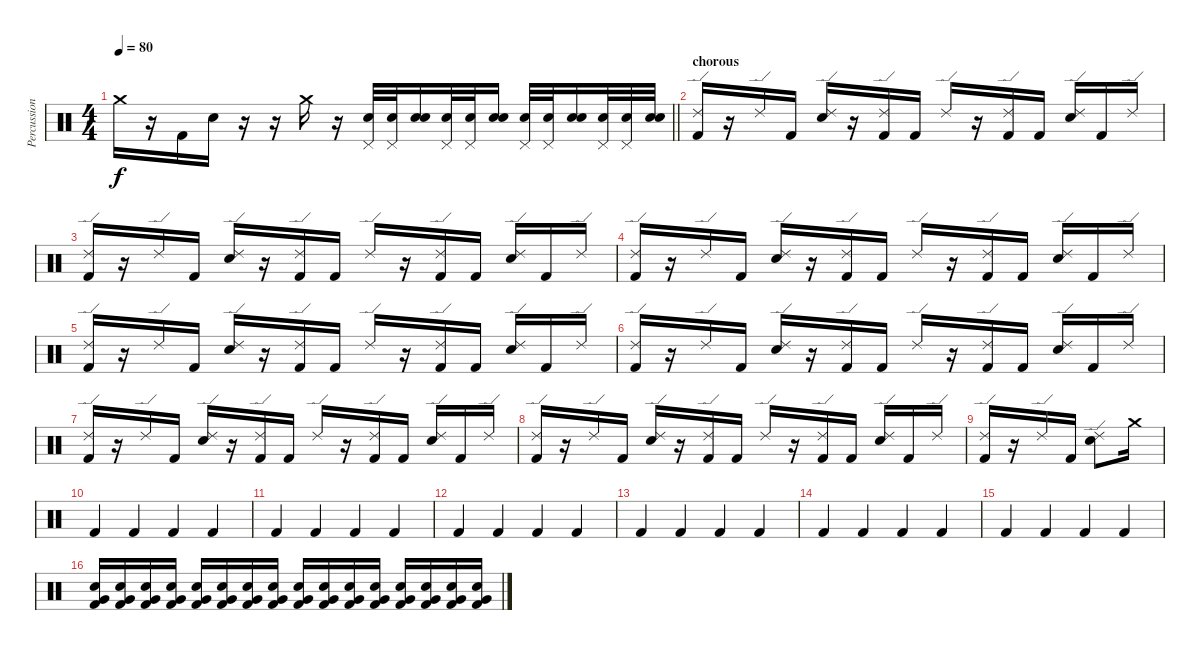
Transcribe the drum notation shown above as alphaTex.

\track ("Percussion" "Percussion") {instrument percussion}
\staff {score}
\articulation defaults
\ts (4 4)
\tempo 80
\clef neutral
\barLineRight lightlight
\ks c "Crash medium (hit)".16{dy f}
r.16 "Kick (hit) 2".16 "Electric Snare (hit)".16 r.16 r.16 "Crash medium (hit)".16 r.16 ("Pedal Hi-Hat (hit)" "Electric Snare (hit)").32 ("Pedal Hi-Hat (hit)" "Electric Snare (hit)").32 ("Electric Snare (hit)" "Electric Snare (hit)").16 ("Pedal Hi-Hat (hit)" "Electric Snare (hit)").32 ("Pedal Hi-Hat (hit)" "Electric Snare (hit)").32 ("Electric Snare (hit)" "Electric Snare (hit)").16 ("Pedal Hi-Hat (hit)" "Electric Snare (hit)").32 ("Pedal Hi-Hat (hit)" "Electric Snare (hit)").32 ("Electric Snare (hit)" "Electric Snare (hit)").16 ("Pedal Hi-Hat (hit)" "Electric Snare (hit)").32 ("Pedal Hi-Hat (hit)" "Electric Snare (hit)").32 ("Electric Snare (hit)" "Electric Snare (hit)").32 |
\section ("" "chorous")
("Ride (edge) 2" "Kick (hit) 2").16 r.16 "Ride (edge) 2".16 "Kick (hit) 2".16 ("Ride (edge) 2" "Electric Snare (hit)").16 r.16 ("Ride (edge) 2" "Kick (hit) 2").16 "Kick (hit) 2".16 "Ride (edge) 2".16 r.16 ("Ride (edge) 2" "Kick (hit) 2").16 "Kick (hit) 2".16 ("Ride (edge) 2" "Electric Snare (hit)").16 "Kick (hit) 2".16 "Ride (edge) 2".16 |
("Ride (edge) 2" "Kick (hit) 2").16 r.16 "Ride (edge) 2".16 "Kick (hit) 2".16 ("Ride (edge) 2" "Electric Snare (hit)").16 r.16 ("Ride (edge) 2" "Kick (hit) 2").16 "Kick (hit) 2".16 "Ride (edge) 2".16 r.16 ("Ride (edge) 2" "Kick (hit) 2").16 "Kick (hit) 2".16 ("Ride (edge) 2" "Electric Snare (hit)").16 "Kick (hit) 2".16 "Ride (edge) 2".16 |
("Ride (edge) 2" "Kick (hit) 2").16 r.16 "Ride (edge) 2".16 "Kick (hit) 2".16 ("Ride (edge) 2" "Electric Snare (hit)").16 r.16 ("Ride (edge) 2" "Kick (hit) 2").16 "Kick (hit) 2".16 "Ride (edge) 2".16 r.16 ("Ride (edge) 2" "Kick (hit) 2").16 "Kick (hit) 2".16 ("Ride (edge) 2" "Electric Snare (hit)").16 "Kick (hit) 2".16 "Ride (edge) 2".16 |
("Ride (edge) 2" "Kick (hit) 2").16 r.16 "Ride (edge) 2".16 "Kick (hit) 2".16 ("Ride (edge) 2" "Electric Snare (hit)").16 r.16 ("Ride (edge) 2" "Kick (hit) 2").16 "Kick (hit) 2".16 "Ride (edge) 2".16 r.16 ("Ride (edge) 2" "Kick (hit) 2").16 "Kick (hit) 2".16 ("Ride (edge) 2" "Electric Snare (hit)").16 "Kick (hit) 2".16 "Ride (edge) 2".16 |
("Ride (edge) 2" "Kick (hit) 2").16 r.16 "Ride (edge) 2".16 "Kick (hit) 2".16 ("Ride (edge) 2" "Electric Snare (hit)").16 r.16 ("Ride (edge) 2" "Kick (hit) 2").16 "Kick (hit) 2".16 "Ride (edge) 2".16 r.16 ("Ride (edge) 2" "Kick (hit) 2").16 "Kick (hit) 2".16 ("Ride (edge) 2" "Electric Snare (hit)").16 "Kick (hit) 2".16 "Ride (edge) 2".16 |
("Ride (edge) 2" "Kick (hit) 2").16 r.16 "Ride (edge) 2".16 "Kick (hit) 2".16 ("Ride (edge) 2" "Electric Snare (hit)").16 r.16 ("Ride (edge) 2" "Kick (hit) 2").16 "Kick (hit) 2".16 "Ride (edge) 2".16 r.16 ("Ride (edge) 2" "Kick (hit) 2").16 "Kick (hit) 2".16 ("Ride (edge) 2" "Electric Snare (hit)").16 "Kick (hit) 2".16 "Ride (edge) 2".16 |
("Ride (edge) 2" "Kick (hit) 2").16 r.16 "Ride (edge) 2".16 "Kick (hit) 2".16 ("Ride (edge) 2" "Electric Snare (hit)").16 r.16 ("Ride (edge) 2" "Kick (hit) 2").16 "Kick (hit) 2".16 "Ride (edge) 2".16 r.16 ("Ride (edge) 2" "Kick (hit) 2").16 "Kick (hit) 2".16 ("Ride (edge) 2" "Electric Snare (hit)").16 "Kick (hit) 2".16 "Ride (edge) 2".16 |
("Ride (edge) 2" "Kick (hit) 2").16 r.16 "Ride (edge) 2".16 "Kick (hit) 2".16 ("Ride (edge) 2" "Electric Snare (hit)").8 "Crash medium (hit)".16 |
"Kick (hit) 2".4 "Kick (hit) 2".4 "Kick (hit) 2".4 "Kick (hit) 2".4 |
"Kick (hit) 2".4 "Kick (hit) 2".4 "Kick (hit) 2".4 "Kick (hit) 2".4 |
"Kick (hit) 2".4 "Kick (hit) 2".4 "Kick (hit) 2".4 "Kick (hit) 2".4 |
"Kick (hit) 2".4 "Kick (hit) 2".4 "Kick (hit) 2".4 "Kick (hit) 2".4 |
"Kick (hit) 2".4 "Kick (hit) 2".4 "Kick (hit) 2".4 "Kick (hit) 2".4 |
"Kick (hit) 2".4 "Kick (hit) 2".4 "Kick (hit) 2".4 "Kick (hit) 2".4 |
("Very Low Tom (hit)" "Kick (hit) 2" "Electric Snare (hit)").16{volume 5} ("Very Low Tom (hit)" "Kick (hit) 2" "Electric Snare (hit)").16 ("Very Low Tom (hit)" "Kick (hit) 2" "Electric Snare (hit)").16{volume 9} ("Very Low Tom (hit)" "Kick (hit) 2" "Electric Snare (hit)").16 ("Very Low Tom (hit)" "Kick (hit) 2" "Electric Snare (hit)").16 ("Very Low Tom (hit)" "Kick (hit) 2" "Electric Snare (hit)").16 ("Very Low Tom (hit)" "Kick (hit) 2" "Electric Snare (hit)").16 ("Very Low Tom (hit)" "Kick (hit) 2" "Electric Snare (hit)").16{volume 13} ("Very Low Tom (hit)" "Kick (hit) 2" "Electric Snare (hit)").16 ("Very Low Tom (hit)" "Kick (hit) 2" "Electric Snare (hit)").16 ("Very Low Tom (hit)" "Kick (hit) 2" "Electric Snare (hit)").16 ("Very Low Tom (hit)" "Kick (hit) 2" "Electric Snare (hit)").16{volume 16} ("Very Low Tom (hit)" "Kick (hit) 2" "Electric Snare (hit)").16 ("Very Low Tom (hit)" "Kick (hit) 2" "Electric Snare (hit)").16 ("Very Low Tom (hit)" "Kick (hit) 2" "Electric Snare (hit)").16 ("Very Low Tom (hit)" "Kick (hit) 2" "Electric Snare (hit)").16{volume 14}
